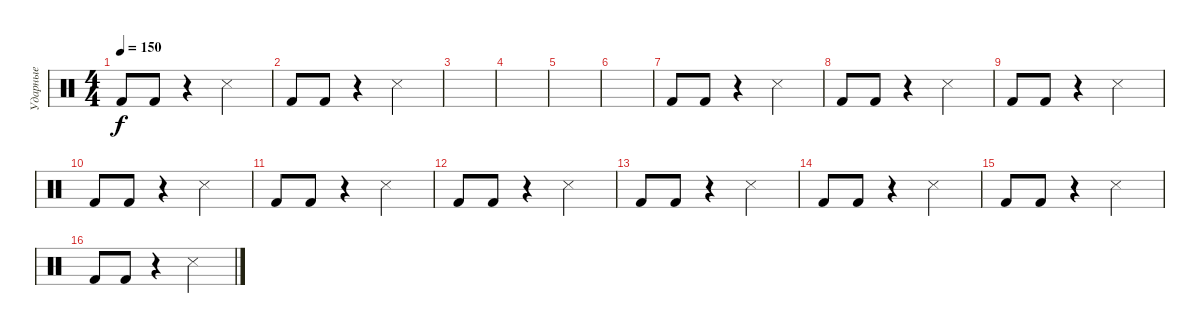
\track ("Ударные" "Ударные") {instrument percussion}
\staff {score}
\articulation defaults
\ts (4 4)
\tempo 150
\clef neutral
\ks c "Kick (hit) 2".8{dy f} "Kick (hit) 2".8
r.4 "Snare (side stick) 3".2 |
"Kick (hit) 2".8 "Kick (hit) 2".8 r.4 "Snare (side stick) 3".2 |
|
|
|
|
"Kick (hit) 2".8 "Kick (hit) 2".8 r.4 "Snare (side stick) 3".2 |
"Kick (hit) 2".8 "Kick (hit) 2".8 r.4 "Snare (side stick) 3".2 |
"Kick (hit) 2".8 "Kick (hit) 2".8 r.4 "Snare (side stick) 3".2 |
"Kick (hit) 2".8 "Kick (hit) 2".8 r.4 "Snare (side stick) 3".2 |
"Kick (hit) 2".8 "Kick (hit) 2".8 r.4 "Snare (side stick) 3".2 |
"Kick (hit) 2".8 "Kick (hit) 2".8 r.4 "Snare (side stick) 3".2 |
"Kick (hit) 2".8 "Kick (hit) 2".8 r.4 "Snare (side stick) 3".2 |
"Kick (hit) 2".8 "Kick (hit) 2".8 r.4 "Snare (side stick) 3".2 |
"Kick (hit) 2".8 "Kick (hit) 2".8 r.4 "Snare (side stick) 3".2 |
"Kick (hit) 2".8 "Kick (hit) 2".8 r.4 "Snare (side stick) 3".2
